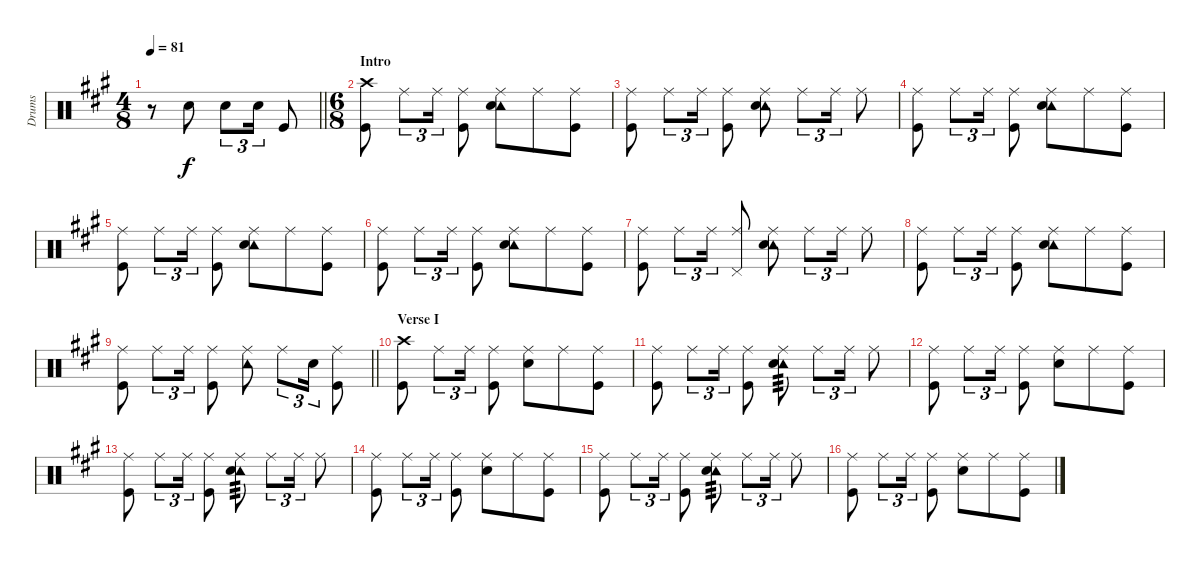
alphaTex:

\track ("Drums" "Drums") {instrument percussion}
\staff {score}
\articulation defaults
\ts (4 8)
\tempo 81
\clef neutral
\barLineRight lightlight
\ks a
r.8{dy f} "Snare (hit) 2".8 "Snare (hit) 2".8{tu (3 2)} "Snare (hit) 2".16{tu (3 2)} "Kick (hit)".8 |
\ts (6 8)
\section ("" "Intro")
("Crash high (hit)" "Kick (hit)").8 "Ride (middle)".8{tu (3 2)} "Ride (middle)".16{tu (3 2)} ("Ride (middle)" "Kick (hit)").8 ("Ride (middle)" "Tambourine (hit)" "Snare (hit) 2").8 "Ride (middle)".8 ("Ride (middle)" "Kick (hit)").8 |
("Ride (middle)" "Kick (hit)").8 "Ride (middle)".8{tu (3 2)} "Ride (middle)".16{tu (3 2)} ("Ride (middle)" "Kick (hit)").8 ("Ride (middle)" "Tambourine (hit)" "Snare (hit) 2").8 "Ride (middle)".8{tu (3 2)} "Ride (middle)".16{tu (3 2)} "Ride (middle)".8 |
("Ride (middle)" "Kick (hit)").8 "Ride (middle)".8{tu (3 2)} "Ride (middle)".16{tu (3 2)} ("Ride (middle)" "Kick (hit)").8 ("Ride (middle)" "Tambourine (hit)" "Snare (hit) 2").8 "Ride (middle)".8 ("Ride (middle)" "Kick (hit)").8 |
("Ride (middle)" "Kick (hit)").8 "Ride (middle)".8{tu (3 2)} "Ride (middle)".16{tu (3 2)} ("Ride (middle)" "Kick (hit)").8 ("Ride (middle)" "Tambourine (hit)" "Snare (hit) 2").8 "Ride (middle)".8 ("Ride (middle)" "Kick (hit)").8 |
("Ride (middle)" "Kick (hit)").8 "Ride (middle)".8{tu (3 2)} "Ride (middle)".16{tu (3 2)} ("Ride (middle)" "Kick (hit)").8 ("Ride (middle)" "Tambourine (hit)" "Snare (hit) 2").8 "Ride (middle)".8 ("Ride (middle)" "Kick (hit)").8 |
("Ride (middle)" "Kick (hit)").8 "Ride (middle)".8{tu (3 2)} "Ride (middle)".16{tu (3 2)} ("Ride (middle)" "Pedal Hi-Hat (hit)").8 ("Ride (middle)" "Tambourine (hit)" "Snare (hit) 2").8 "Ride (middle)".8{tu (3 2)} "Ride (middle)".16{tu (3 2)} "Ride (middle)".8 |
("Ride (middle)" "Kick (hit)").8 "Ride (middle)".8{tu (3 2)} "Ride (middle)".16{tu (3 2)} ("Ride (middle)" "Kick (hit)").8 ("Ride (middle)" "Tambourine (hit)" "Snare (hit) 2").8 "Ride (middle)".8 ("Ride (middle)" "Kick (hit)").8 |
\barLineRight lightlight
("Ride (middle)" "Kick (hit)").8 "Ride (middle)".8{tu (3 2)} "Ride (middle)".16{tu (3 2)} ("Ride (middle)" "Kick (hit)").8 ("Ride (middle)" "Tambourine (hit)").8 "Ride (middle)".8{tu (3 2)} "Snare (hit) 2".16{tu (3 2)} ("Ride (middle)" "Kick (hit)").8 |
\section ("" "Verse I")
("Crash high (hit)" "Kick (hit)").8 "Ride (middle)".8{tu (3 2)} "Ride (middle)".16{tu (3 2)} ("Ride (middle)" "Kick (hit)").8 ("Ride (middle)" "Snare (hit) 2").8 "Ride (middle)".8 ("Ride (middle)" "Kick (hit)").8 |
("Ride (middle)" "Kick (hit)").8 "Ride (middle)".8{tu (3 2)} "Ride (middle)".16{tu (3 2)} ("Ride (middle)" "Kick (hit)").8 ("Ride (middle)" "Tambourine (hit)" "Snare (hit) 2").8{tp 3} "Ride (middle)".8{tu (3 2)} "Ride (middle)".16{tu (3 2)} "Ride (middle)".8 |
("Ride (middle)" "Kick (hit)").8 "Ride (middle)".8{tu (3 2)} "Ride (middle)".16{tu (3 2)} ("Ride (middle)" "Kick (hit)").8 ("Ride (middle)" "Snare (hit) 2").8 "Ride (middle)".8 ("Ride (middle)" "Kick (hit)").8 |
("Ride (middle)" "Kick (hit)").8 "Ride (middle)".8{tu (3 2)} "Ride (middle)".16{tu (3 2)} ("Ride (middle)" "Kick (hit)").8 ("Ride (middle)" "Tambourine (hit)" "Snare (hit) 2").8{tp 3} "Ride (middle)".8{tu (3 2)} "Ride (middle)".16{tu (3 2)} "Ride (middle)".8 |
("Ride (middle)" "Kick (hit)").8 "Ride (middle)".8{tu (3 2)} "Ride (middle)".16{tu (3 2)} ("Ride (middle)" "Kick (hit)").8 ("Ride (middle)" "Snare (hit) 2").8 "Ride (middle)".8 ("Ride (middle)" "Kick (hit)").8 |
("Ride (middle)" "Kick (hit)").8 "Ride (middle)".8{tu (3 2)} "Ride (middle)".16{tu (3 2)} ("Ride (middle)" "Kick (hit)").8 ("Ride (middle)" "Tambourine (hit)" "Snare (hit) 2").8{tp 3} "Ride (middle)".8{tu (3 2)} "Ride (middle)".16{tu (3 2)} "Ride (middle)".8 |
("Ride (middle)" "Kick (hit)").8 "Ride (middle)".8{tu (3 2)} "Ride (middle)".16{tu (3 2)} ("Ride (middle)" "Kick (hit)").8 ("Ride (middle)" "Snare (hit) 2").8 "Ride (middle)".8 ("Ride (middle)" "Kick (hit)").8
